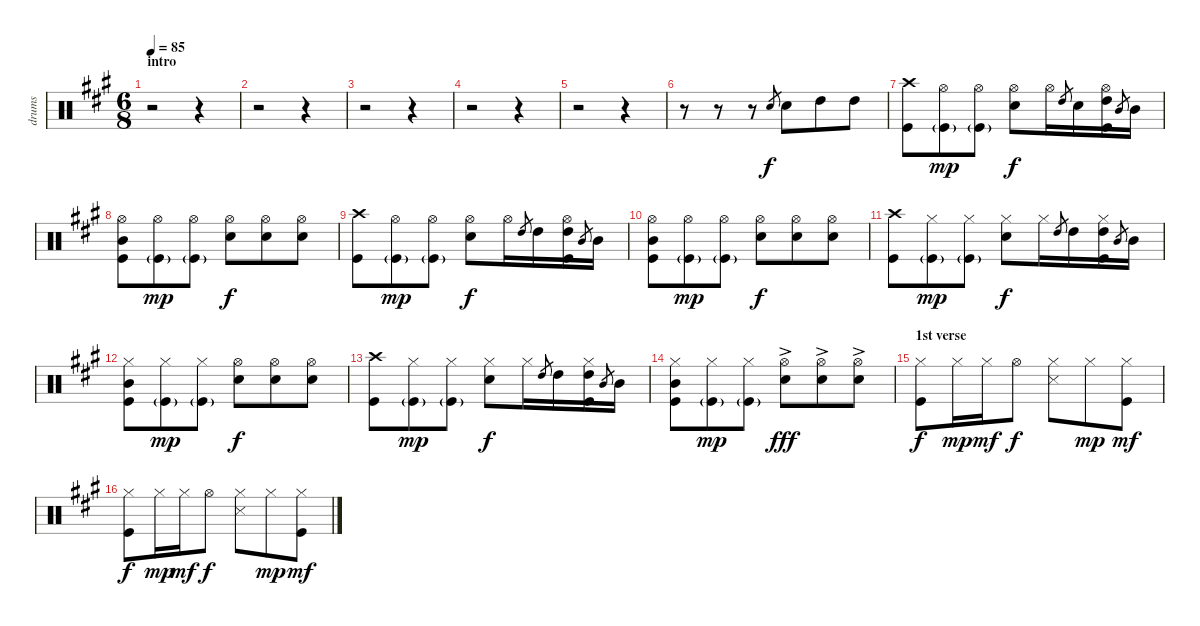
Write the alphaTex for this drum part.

\track ("drums" "drums") {instrument percussion}
\staff {score}
\articulation defaults
\ts (6 8)
\section ("" "intro")
\tempo 85
\clef neutral
\ks f#minor
r.2{dy f} r.4 |
r.2 r.4 |
r.2 r.4 |
r.2 r.4 |
r.2 r.4 |
r.8 r.8 r.8 "Electric Snare (hit)".8{gr} "Electric Snare (hit)".8 "High Tom (hit)".8 "High Tom (hit)".8 |
("Crash high (hit)" "Kick (hit)").8 ("Hi-Hat (open)" "Kick (hit)"{g}).8{dy mp} ("Hi-Hat (open)" "Kick (hit)"{g}).8 ("Hi-Hat (open)" "Electric Snare (hit)").8{dy f} "Hi-Hat (open)".16 "High Tom (hit)".8{gr} "Snare (hit)".16 ("Hi-Hat (open)" "High Tom (hit)" "Kick (hit)").16 "Mid Tom (hit)".8{gr} "Mid Tom (hit)".16 |
("Hi-Hat (open)" "Mid Tom (hit)" "Kick (hit)").8 ("Hi-Hat (open)" "Kick (hit)"{g}).8{dy mp} ("Hi-Hat (open)" "Kick (hit)"{g}).8 ("Hi-Hat (open)" "Electric Snare (hit)").8{dy f} ("Hi-Hat (open)" "Electric Snare (hit)").8 ("Hi-Hat (open)" "Electric Snare (hit)").8 |
("Crash high (hit)" "Kick (hit)").8 ("Hi-Hat (open)" "Kick (hit)"{g}).8{dy mp} ("Hi-Hat (open)" "Kick (hit)"{g}).8 ("Hi-Hat (open)" "Electric Snare (hit)").8{dy f} "Hi-Hat (open)".16 "High Tom (hit)".8{gr} "High Tom (hit)".16 ("Hi-Hat (open)" "High Tom (hit)" "Kick (hit)").16 "Mid Tom (hit)".8{gr} "Mid Tom (hit)".16 |
("Hi-Hat (open)" "Mid Tom (hit)" "Kick (hit)").8 ("Hi-Hat (open)" "Kick (hit)"{g}).8{dy mp} ("Hi-Hat (open)" "Kick (hit)"{g}).8 ("Hi-Hat (open)" "Electric Snare (hit)").8{dy f} ("Hi-Hat (open)" "Electric Snare (hit)").8 ("Hi-Hat (open)" "Electric Snare (hit)").8 |
("Crash high (hit)" "Kick (hit)").8 ("Hi-Hat (closed)" "Kick (hit)"{g}).8{dy mp} ("Hi-Hat (closed)" "Kick (hit)"{g}).8 ("Hi-Hat (closed)" "Electric Snare (hit)").8{dy f} "Hi-Hat (closed)".16 "High Tom (hit)".8{gr} "High Tom (hit)".16 ("Hi-Hat (closed)" "High Tom (hit)" "Kick (hit)").16 "Mid Tom (hit)".8{gr} "Mid Tom (hit)".16 |
("Hi-Hat (closed)" "Mid Tom (hit)" "Kick (hit)").8 ("Hi-Hat (closed)" "Kick (hit)"{g}).8{dy mp} ("Hi-Hat (closed)" "Kick (hit)"{g}).8 ("Hi-Hat (open)" "Electric Snare (hit)").8{dy f} ("Hi-Hat (open)" "Electric Snare (hit)").8 ("Hi-Hat (open)" "Electric Snare (hit)").8 |
("Crash high (hit)" "Kick (hit)").8 ("Hi-Hat (closed)" "Kick (hit)"{g}).8{dy mp} ("Hi-Hat (closed)" "Kick (hit)"{g}).8 ("Hi-Hat (closed)" "Electric Snare (hit)").8{dy f} "Hi-Hat (closed)".16 "High Tom (hit)".8{gr} "High Tom (hit)".16 ("Hi-Hat (closed)" "High Tom (hit)" "Kick (hit)").16 "Mid Tom (hit)".8{gr} "Mid Tom (hit)".16 |
("Hi-Hat (closed)" "Mid Tom (hit)" "Kick (hit)").8 ("Hi-Hat (closed)" "Kick (hit)"{g}).8{dy mp} ("Hi-Hat (closed)" "Kick (hit)"{g}).8 ("Hi-Hat (open)"{ac} "Electric Snare (hit)").8{dy fff} ("Hi-Hat (open)"{ac} "Electric Snare (hit)").8 ("Hi-Hat (open)"{ac} "Electric Snare (hit)").8 |
\section ("" "1st verse")
("Hi-Hat (closed)" "Kick (hit)").8{dy f} "Hi-Hat (closed)".16{dy mp} "Hi-Hat (closed)".16{dy mf} "Hi-Hat (open)".8{dy f} ("Hi-Hat (closed)" "Snare (side stick) 3").8 "Hi-Hat (closed)".8{dy mp} ("Hi-Hat (closed)" "Kick (hit)").8{dy mf} |
("Hi-Hat (closed)" "Kick (hit)").8{dy f} "Hi-Hat (closed)".16{dy mp} "Hi-Hat (closed)".16{dy mf} "Hi-Hat (open)".8{dy f} ("Hi-Hat (closed)" "Snare (side stick) 3").8 "Hi-Hat (closed)".8{dy mp} ("Hi-Hat (closed)" "Kick (hit)").8{dy mf}
